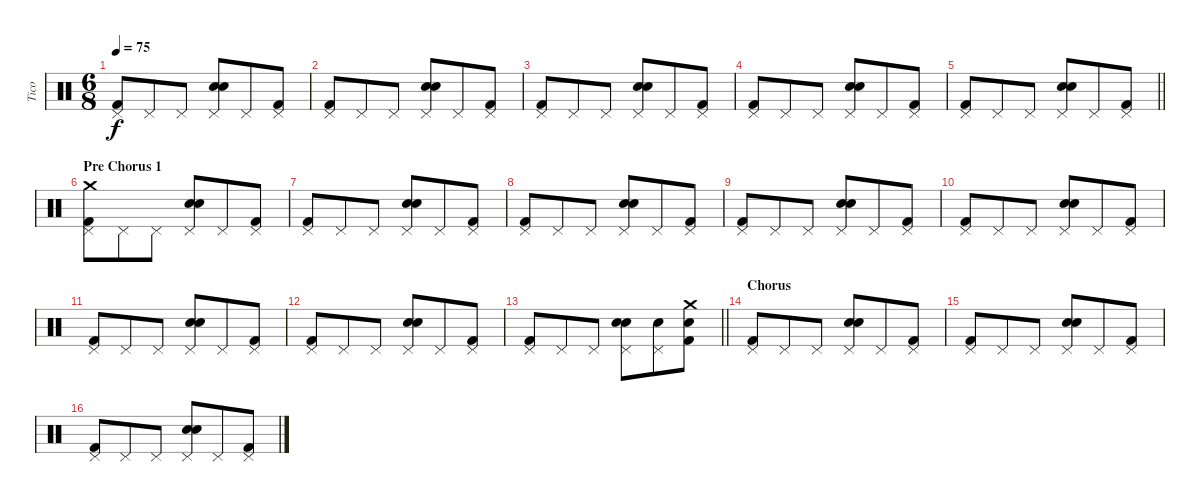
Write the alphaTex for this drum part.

\track ("Tico" "Tico") {instrument percussion}
\staff {score}
\articulation defaults
\ts (6 8)
\tempo 75
\clef neutral
\ks c
("Kick (hit) 2" "Pedal Hi-Hat (hit)").8{dy f} "Pedal Hi-Hat (hit)".8 "Pedal Hi-Hat (hit)".8 ("Electric Snare (hit)" "Snare (hit) 2" "Pedal Hi-Hat (hit)").8 "Pedal Hi-Hat (hit)".8 ("Kick (hit) 2" "Pedal Hi-Hat (hit)").8 |
("Kick (hit) 2" "Pedal Hi-Hat (hit)").8 "Pedal Hi-Hat (hit)".8 "Pedal Hi-Hat (hit)".8 ("Electric Snare (hit)" "Snare (hit) 2" "Pedal Hi-Hat (hit)").8 "Pedal Hi-Hat (hit)".8 ("Kick (hit) 2" "Pedal Hi-Hat (hit)").8 |
("Kick (hit) 2" "Pedal Hi-Hat (hit)").8 "Pedal Hi-Hat (hit)".8 "Pedal Hi-Hat (hit)".8 ("Electric Snare (hit)" "Snare (hit) 2" "Pedal Hi-Hat (hit)").8 "Pedal Hi-Hat (hit)".8 ("Kick (hit) 2" "Pedal Hi-Hat (hit)").8 |
("Kick (hit) 2" "Pedal Hi-Hat (hit)").8 "Pedal Hi-Hat (hit)".8 "Pedal Hi-Hat (hit)".8 ("Electric Snare (hit)" "Snare (hit) 2" "Pedal Hi-Hat (hit)").8 "Pedal Hi-Hat (hit)".8 ("Kick (hit) 2" "Pedal Hi-Hat (hit)").8 |
\barLineRight lightlight
("Kick (hit) 2" "Pedal Hi-Hat (hit)").8 "Pedal Hi-Hat (hit)".8 "Pedal Hi-Hat (hit)".8 ("Electric Snare (hit)" "Snare (hit) 2" "Pedal Hi-Hat (hit)").8 "Pedal Hi-Hat (hit)".8 ("Kick (hit) 2" "Pedal Hi-Hat (hit)").8 |
\section ("" "Pre Chorus 1")
("Crash medium (hit)" "Kick (hit) 2" "Pedal Hi-Hat (hit)").8 "Pedal Hi-Hat (hit)".8 "Pedal Hi-Hat (hit)".8 ("Electric Snare (hit)" "Snare (hit) 2" "Pedal Hi-Hat (hit)").8 "Pedal Hi-Hat (hit)".8 ("Kick (hit) 2" "Pedal Hi-Hat (hit)").8 |
("Kick (hit) 2" "Pedal Hi-Hat (hit)").8 "Pedal Hi-Hat (hit)".8 "Pedal Hi-Hat (hit)".8 ("Electric Snare (hit)" "Snare (hit) 2" "Pedal Hi-Hat (hit)").8 "Pedal Hi-Hat (hit)".8 ("Kick (hit) 2" "Pedal Hi-Hat (hit)").8 |
("Kick (hit) 2" "Pedal Hi-Hat (hit)").8 "Pedal Hi-Hat (hit)".8 "Pedal Hi-Hat (hit)".8 ("Electric Snare (hit)" "Snare (hit) 2" "Pedal Hi-Hat (hit)").8 "Pedal Hi-Hat (hit)".8 ("Kick (hit) 2" "Pedal Hi-Hat (hit)").8 |
("Kick (hit) 2" "Pedal Hi-Hat (hit)").8 "Pedal Hi-Hat (hit)".8 "Pedal Hi-Hat (hit)".8 ("Electric Snare (hit)" "Snare (hit) 2" "Pedal Hi-Hat (hit)").8 "Pedal Hi-Hat (hit)".8 ("Kick (hit) 2" "Pedal Hi-Hat (hit)").8 |
("Kick (hit) 2" "Pedal Hi-Hat (hit)").8 "Pedal Hi-Hat (hit)".8 "Pedal Hi-Hat (hit)".8 ("Electric Snare (hit)" "Snare (hit) 2" "Pedal Hi-Hat (hit)").8 "Pedal Hi-Hat (hit)".8 ("Kick (hit) 2" "Pedal Hi-Hat (hit)").8 |
("Kick (hit) 2" "Pedal Hi-Hat (hit)").8 "Pedal Hi-Hat (hit)".8 "Pedal Hi-Hat (hit)".8 ("Electric Snare (hit)" "Snare (hit) 2" "Pedal Hi-Hat (hit)").8 "Pedal Hi-Hat (hit)".8 ("Kick (hit) 2" "Pedal Hi-Hat (hit)").8 |
("Kick (hit) 2" "Pedal Hi-Hat (hit)").8 "Pedal Hi-Hat (hit)".8 "Pedal Hi-Hat (hit)".8 ("Electric Snare (hit)" "Snare (hit) 2" "Pedal Hi-Hat (hit)").8 "Pedal Hi-Hat (hit)".8 ("Kick (hit) 2" "Pedal Hi-Hat (hit)").8 |
\barLineRight lightlight
("Kick (hit) 2" "Pedal Hi-Hat (hit)").8 "Pedal Hi-Hat (hit)".8 "Pedal Hi-Hat (hit)".8 ("Electric Snare (hit)" "Snare (hit) 2" "Pedal Hi-Hat (hit)").8 ("Snare (hit) 2" "Pedal Hi-Hat (hit)").8 ("Crash medium (hit)" "Snare (hit) 2" "Kick (hit) 2").8 |
\section ("" "Chorus")
("Kick (hit) 2" "Pedal Hi-Hat (hit)").8 "Pedal Hi-Hat (hit)".8 "Pedal Hi-Hat (hit)".8 ("Electric Snare (hit)" "Snare (hit) 2" "Pedal Hi-Hat (hit)").8 "Pedal Hi-Hat (hit)".8 ("Kick (hit) 2" "Pedal Hi-Hat (hit)").8 |
("Kick (hit) 2" "Pedal Hi-Hat (hit)").8 "Pedal Hi-Hat (hit)".8 "Pedal Hi-Hat (hit)".8 ("Electric Snare (hit)" "Snare (hit) 2" "Pedal Hi-Hat (hit)").8 "Pedal Hi-Hat (hit)".8 ("Kick (hit) 2" "Pedal Hi-Hat (hit)").8 |
("Kick (hit) 2" "Pedal Hi-Hat (hit)").8 "Pedal Hi-Hat (hit)".8 "Pedal Hi-Hat (hit)".8 ("Electric Snare (hit)" "Snare (hit) 2" "Pedal Hi-Hat (hit)").8 "Pedal Hi-Hat (hit)".8 ("Kick (hit) 2" "Pedal Hi-Hat (hit)").8
